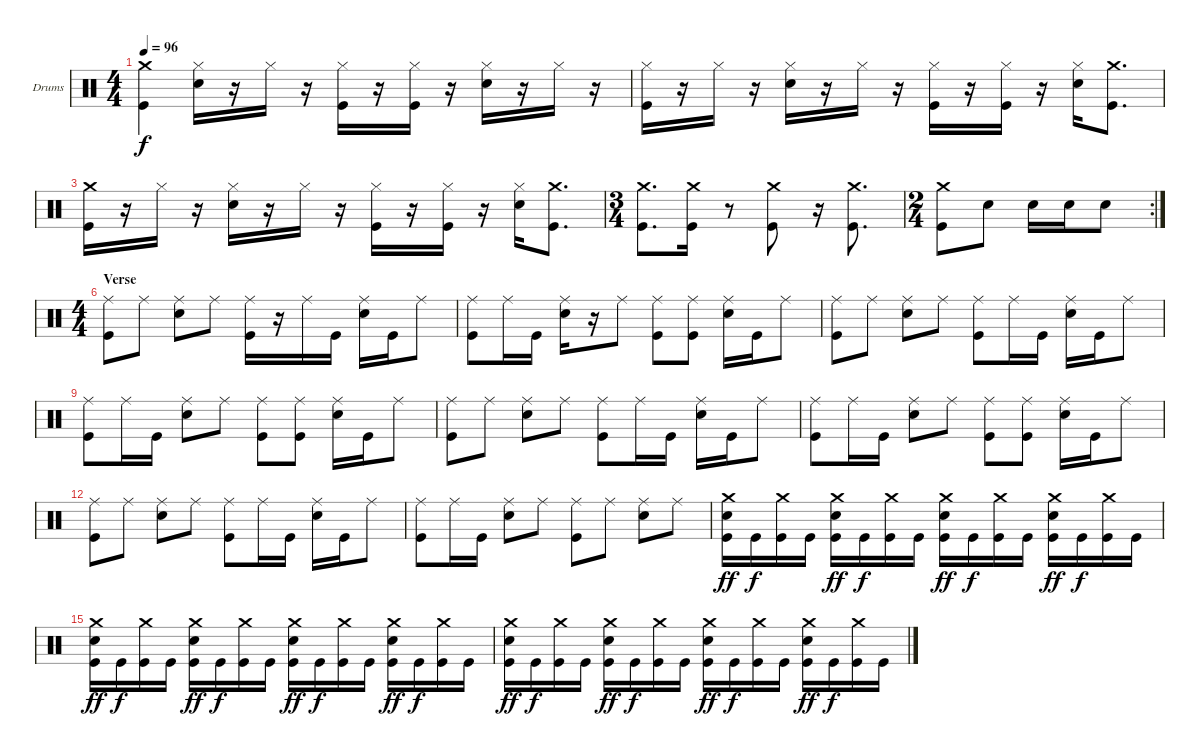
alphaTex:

\bracketExtendMode nobrackets
\firstSystemTrackNameOrientation horizontal
\otherSystemsTrackNameOrientation horizontal
\defaultBarNumberDisplay FirstOfSystem
\track ("Drumkit" "Drums") {instrument percussion}
\staff {score}
\articulation defaults
\ts (4 4)
\tempo 96
\clef neutral
\ks c
("Crash medium (hit)" "Kick (hit)").4{dy f} ("Snare (hit) 2" "Hi-Hat (closed)").16 r.16 "Hi-Hat (closed)".16 r.16 ("Kick (hit)" "Hi-Hat (closed)").16 r.16 ("Kick (hit)" "Hi-Hat (closed)").16 r.16 ("Snare (hit) 2" "Hi-Hat (closed)").16 r.16 "Hi-Hat (closed)".16 r.16 |
("Hi-Hat (closed)" "Kick (hit)").16 r.16 "Hi-Hat (closed)".16 r.16 ("Snare (hit) 2" "Hi-Hat (closed)").16 r.16 "Hi-Hat (closed)".16 r.16 ("Hi-Hat (closed)" "Kick (hit)").16 r.16 ("Kick (hit)" "Hi-Hat (closed)").16 r.16 ("Hi-Hat (closed)" "Snare (hit) 2").16 ("Crash medium (hit)" "Kick (hit)").8{d} |
("Kick (hit)" "Crash medium (hit)").16 r.16 "Hi-Hat (closed)".16 r.16 ("Snare (hit) 2" "Hi-Hat (closed)").16 r.16 "Hi-Hat (closed)".16 r.16 ("Hi-Hat (closed)" "Kick (hit)").16 r.16 ("Kick (hit)" "Hi-Hat (closed)").16 r.16 ("Hi-Hat (closed)" "Snare (hit) 2").16 ("Crash medium (hit)" "Kick (hit)").8{d} |
\ts (3 4)
("Crash medium (hit)" "Kick (hit)").8{d} ("Crash medium (hit)" "Kick (hit)").16 r.8 ("Crash medium (hit)" "Kick (hit)").8 r.16 ("Crash medium (hit)" "Kick (hit)").8{d} |
\rc 2
\ts (2 4)
("Crash medium (hit)" "Kick (hit)").8 "Snare (hit) 2".8 "Snare (hit) 2".16 "Snare (hit) 2".16 "Snare (hit) 2".8 |
\ts (4 4)
\section ("" "Verse")
\scale
0.256862 ("Ride (middle)" "Kick (hit)").8 "Ride (middle)".8 ("Ride (middle)" "Snare (hit) 2").8 "Ride (middle)".8 ("Ride (middle)" "Kick (hit)").16 r.16 "Ride (middle)".16 "Kick (hit)".16 ("Ride (middle)" "Snare (hit) 2").16 "Kick (hit)".16 "Ride (middle)".8 |
\scale
0.251527 ("Ride (middle)" "Kick (hit)").8 "Ride (middle)".16 "Kick (hit)".16 ("Ride (middle)" "Snare (hit) 2").16 r.16 "Ride (middle)".8 ("Ride (middle)" "Kick (hit)").8 ("Ride (middle)" "Kick (hit)").8 ("Ride (middle)" "Snare (hit) 2").16 "Kick (hit)".16 "Ride (middle)".8 |
\scale
0.24581 ("Ride (middle)" "Kick (hit)").8 "Ride (middle)".8 ("Ride (middle)" "Snare (hit) 2").8 "Ride (middle)".8 ("Ride (middle)" "Kick (hit)").8 "Ride (middle)".16 "Kick (hit)".16 ("Ride (middle)" "Snare (hit) 2").16 "Kick (hit)".16 "Ride (middle)".8 |
\scale
0.24581 ("Ride (middle)" "Kick (hit)").8 "Ride (middle)".16 "Kick (hit)".16 ("Ride (middle)" "Snare (hit) 2").8 "Ride (middle)".8 ("Ride (middle)" "Kick (hit)").8 ("Ride (middle)" "Kick (hit)").8 ("Ride (middle)" "Snare (hit) 2").16 "Kick (hit)".16 "Ride (middle)".8 |
("Ride (middle)" "Kick (hit)").8 "Ride (middle)".8 ("Snare (hit) 2" "Ride (middle)").8 "Ride (middle)".8 ("Kick (hit)" "Ride (middle)").8 "Ride (middle)".16 "Kick (hit)".16 ("Snare (hit) 2" "Ride (middle)").16 "Kick (hit)".16 "Ride (middle)".8 |
("Ride (middle)" "Kick (hit)").8 "Ride (middle)".16 "Kick (hit)".16 ("Snare (hit) 2" "Ride (middle)").8 "Ride (middle)".8 ("Kick (hit)" "Ride (middle)").8 ("Ride (middle)" "Kick (hit)").8 ("Snare (hit) 2" "Ride (middle)").16 "Kick (hit)".16 "Ride (middle)".8 |
("Ride (middle)" "Kick (hit)").8 "Ride (middle)".8 ("Ride (middle)" "Snare (hit) 2").8 "Ride (middle)".8 ("Ride (middle)" "Kick (hit)").8 "Ride (middle)".16 "Kick (hit)".16 ("Ride (middle)" "Snare (hit) 2").16 "Kick (hit)".16 "Ride (middle)".8 |
("Ride (middle)" "Kick (hit)").8 "Ride (middle)".16 "Kick (hit)".16 ("Ride (middle)" "Snare (hit) 2").8 "Ride (middle)".8 ("Ride (middle)" "Kick (hit)").8 "Ride (middle)".8 ("Ride (middle)" "Snare (hit) 2").8 "Ride (middle)".8 |
("Crash medium (hit)" "Snare (hit) 2" "Kick (hit)").16{dy ff} "Kick (hit)".16{dy f} ("Crash medium (hit)" "Kick (hit)").16 "Kick (hit)".16 ("Crash medium (hit)" "Snare (hit) 2" "Kick (hit)").16{dy ff} "Kick (hit)".16{dy f} ("Crash medium (hit)" "Kick (hit)").16 "Kick (hit)".16 ("Crash medium (hit)" "Snare (hit) 2" "Kick (hit)").16{dy ff} "Kick (hit)".16{dy f} ("Crash medium (hit)" "Kick (hit)").16 "Kick (hit)".16 ("Crash medium (hit)" "Snare (hit) 2" "Kick (hit)").16{dy ff} "Kick (hit)".16{dy f} ("Crash medium (hit)" "Kick (hit)").16 "Kick (hit)".16 |
("Crash medium (hit)" "Snare (hit) 2" "Kick (hit)").16{dy ff} "Kick (hit)".16{dy f} ("Crash medium (hit)" "Kick (hit)").16 "Kick (hit)".16 ("Crash medium (hit)" "Snare (hit) 2" "Kick (hit)").16{dy ff} "Kick (hit)".16{dy f} ("Crash medium (hit)" "Kick (hit)").16 "Kick (hit)".16 ("Crash medium (hit)" "Snare (hit) 2" "Kick (hit)").16{dy ff} "Kick (hit)".16{dy f} ("Crash medium (hit)" "Kick (hit)").16 "Kick (hit)".16 ("Crash medium (hit)" "Snare (hit) 2" "Kick (hit)").16{dy ff} "Kick (hit)".16{dy f} ("Crash medium (hit)" "Kick (hit)").16 "Kick (hit)".16 |
("Crash medium (hit)" "Snare (hit) 2" "Kick (hit)").16{dy ff} "Kick (hit)".16{dy f} ("Crash medium (hit)" "Kick (hit)").16 "Kick (hit)".16 ("Crash medium (hit)" "Snare (hit) 2" "Kick (hit)").16{dy ff} "Kick (hit)".16{dy f} ("Crash medium (hit)" "Kick (hit)").16 "Kick (hit)".16 ("Crash medium (hit)" "Snare (hit) 2" "Kick (hit)").16{dy ff} "Kick (hit)".16{dy f} ("Crash medium (hit)" "Kick (hit)").16 "Kick (hit)".16 ("Crash medium (hit)" "Snare (hit) 2" "Kick (hit)").16{dy ff} "Kick (hit)".16{dy f} ("Crash medium (hit)" "Kick (hit)").16 "Kick (hit)".16
